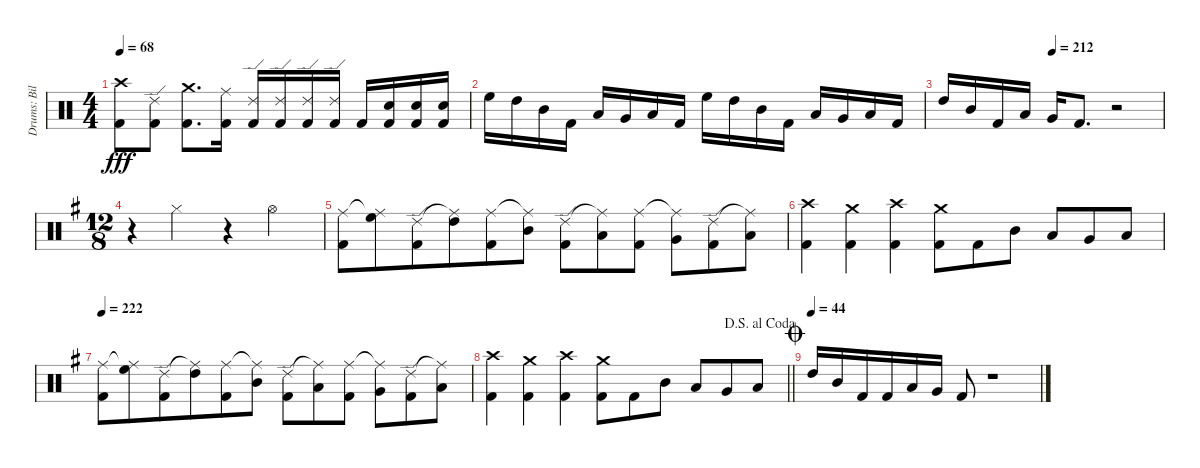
\track ("Drums: Bill" "Drums: Bil") {instrument percussion}
\staff {score}
\articulation defaults
\ts (4 4)
\tempo 68
\clef neutral
\ks c
("Crash high (hit)" "Kick (hit) 2").8{dy fff} ("Ride (edge) 2" "Kick (hit) 2").8 ("Crash medium (hit)" "Kick (hit) 2").8{d} ("Ride (middle)" "Kick (hit) 2").16 ("Ride (edge) 2" "Kick (hit) 2").16 ("Ride (edge) 2" "Kick (hit) 2").16 ("Ride (edge) 2" "Kick (hit) 2").16 ("Ride (edge) 2" "Kick (hit) 2").16 "Kick (hit) 2".16 ("Electric Snare (hit)" "Kick (hit) 2").16 ("Electric Snare (hit)" "Kick (hit) 2").16 ("Electric Snare (hit)" "Kick (hit) 2").16 |
"High Floor Tom (hit)".16 "High Tom (hit)".16 "Mid Tom (hit)".16 "Kick (hit) 2".16 "Low Tom (hit)".16 "Very Low Tom (hit)".16 "Low Floor Tom (hit)".16 "Kick (hit) 2".16 "High Floor Tom (hit)".16 "High Tom (hit)".16 "Mid Tom (hit)".16 "Kick (hit) 2".16 "Low Tom (hit)".16 "Very Low Tom (hit)".16 "Low Floor Tom (hit)".16 "Kick (hit) 2".16 |
\tempo (212 0.5)
"High Tom (hit)".16 "Mid Tom (hit)".16 "Kick (hit) 2".16 "Low Tom (hit)".16 "Very Low Tom (hit)".16 "Kick (hit) 2".8{d} r.2 |
\ts (12 8)
\ks g
r.4 "Hi-Hat (closed)".2 r.4 "Hi-Hat (open)".2 |
("Ride (middle)" "Kick (hit) 2").8 ("Ride (middle)"{t} "High Floor Tom (hit)").8 ("Ride (edge) 2" "Kick (hit) 2").8{beam merge} ("Ride (middle)"{t} "High Tom (hit)").8 ("Ride (middle)" "Kick (hit) 2").8 ("Ride (middle)"{t} "Mid Tom (hit)").8 ("Ride (edge) 2" "Kick (hit) 2").8{beam merge} ("Ride (middle)"{t} "Low Tom (hit)").8 ("Ride (middle)" "Kick (hit) 2").8 ("Ride (middle)"{t} "Very Low Tom (hit)").8 ("Ride (edge) 2" "Kick (hit) 2").8{beam merge} ("Ride (middle)"{t} "Low Floor Tom (hit)").8 |
("Crash high (hit)" "Kick (hit) 2").4 ("Crash medium (hit)" "Kick (hit) 2").4 ("Crash high (hit)" "Kick (hit) 2").4 ("Crash medium (hit)" "Kick (hit) 2").8 "Kick (hit) 2".8 "Mid Tom (hit)".8 "Low Tom (hit)".8 "Very Low Tom (hit)".8 "Low Floor Tom (hit)".8 |
\tempo 222
("Ride (middle)" "Kick (hit) 2").8 ("Ride (middle)"{t} "High Floor Tom (hit)").8 ("Ride (edge) 2" "Kick (hit) 2").8{beam merge} ("Ride (middle)"{t} "High Tom (hit)").8 ("Ride (middle)" "Kick (hit) 2").8 ("Ride (middle)"{t} "Mid Tom (hit)").8 ("Ride (edge) 2" "Kick (hit) 2").8{beam merge} ("Ride (middle)"{t} "Low Tom (hit)").8 ("Ride (middle)" "Kick (hit) 2").8 ("Ride (middle)"{t} "Very Low Tom (hit)").8 ("Ride (edge) 2" "Kick (hit) 2").8{beam merge} ("Ride (middle)"{t} "Low Floor Tom (hit)").8 |
\jump dalsegnoalcoda
\barLineRight lightlight
("Crash high (hit)" "Kick (hit) 2").4 ("Crash medium (hit)" "Kick (hit) 2").4 ("Crash high (hit)" "Kick (hit) 2").4 ("Crash medium (hit)" "Kick (hit) 2").8 "Kick (hit) 2".8 "Mid Tom (hit)".8 "Low Tom (hit)".8 "Very Low Tom (hit)".8 "Low Floor Tom (hit)".8 |
\jump coda
\tempo (44)
"High Tom (hit)".16 "Mid Tom (hit)".16 "Kick (hit) 2".16 "Kick (hit) 2".16 "Low Tom (hit)".16 "Very Low Tom (hit)".16 "Kick (hit) 2".8 r.1
